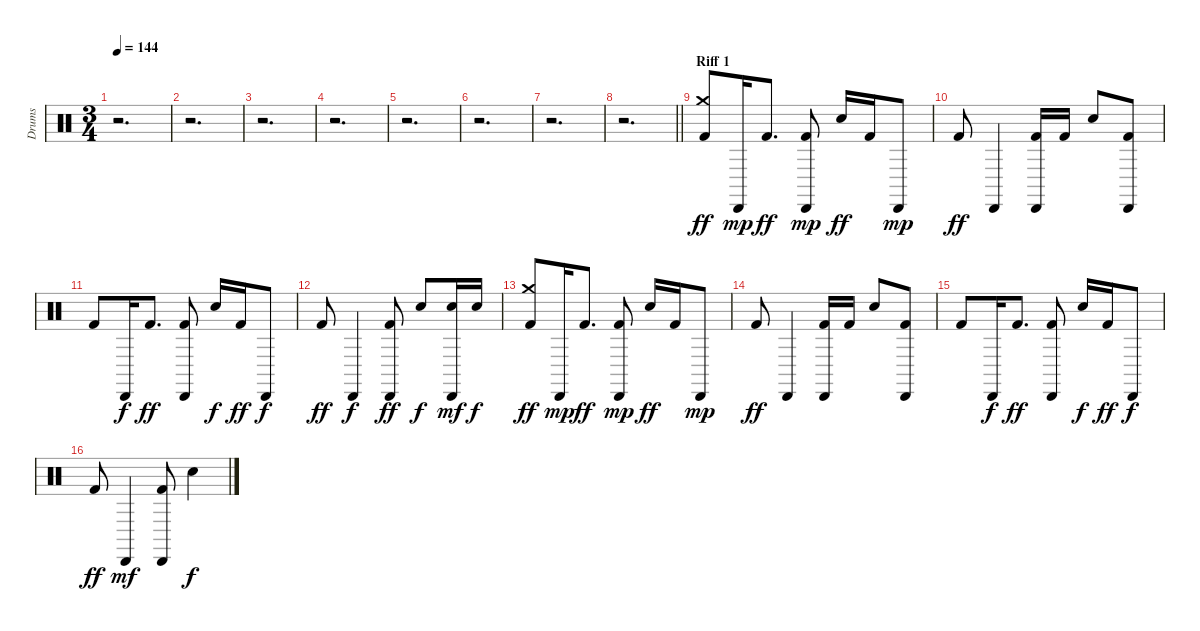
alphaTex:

\track ("Drums" "Drums") {instrument percussion}
\staff {score}
\articulation defaults
\ts (3 4)
\tempo 144
\clef neutral
\ks c
r.2{d dy ff} |
r.2{d} |
r.2{d} |
r.2{d} |
r.2{d} |
r.2{d} |
r.2{d} |
\barLineRight lightlight
r.2{d} |
\section ("" "Riff 1")
("Kick (hit) 2" "Crash medium (hit)").8 "Cabasa (hit)".16{dy mp} "Kick (hit) 2".8{d dy ff} ("Kick (hit) 2" "Cabasa (hit)").8{dy mp} "Snare (hit) 2".16{dy ff} "Kick (hit) 2".16 "Cabasa (hit)".8{dy mp} |
"Kick (hit) 2".8{dy ff} "Cabasa (hit)".4 ("Kick (hit) 2" "Cabasa (hit)").16 "Kick (hit) 2".16 "Snare (hit) 2".8 ("Kick (hit) 2" "Cabasa (hit)").8 |
"Kick (hit) 2".8 "Cabasa (hit)".16{dy f} "Kick (hit) 2".8{d dy ff} ("Kick (hit) 2" "Cabasa (hit)").8 "Snare (hit) 2".16{dy f} "Kick (hit) 2".16{dy ff} "Cabasa (hit)".8{dy f} |
"Kick (hit) 2".8{dy ff} "Cabasa (hit)".4{dy f} ("Kick (hit) 2" "Cabasa (hit)").8{dy ff} "Snare (hit) 2".8{dy f} ("Snare (hit) 2" "Cabasa (hit)").16{dy mf} "Snare (hit) 2".16{dy f} |
("Kick (hit) 2" "Crash medium (hit)").8{dy ff} "Cabasa (hit)".16{dy mp} "Kick (hit) 2".8{d dy ff} ("Kick (hit) 2" "Cabasa (hit)").8{dy mp} "Snare (hit) 2".16{dy ff} "Kick (hit) 2".16 "Cabasa (hit)".8{dy mp} |
"Kick (hit) 2".8{dy ff} "Cabasa (hit)".4 ("Kick (hit) 2" "Cabasa (hit)").16 "Kick (hit) 2".16 "Snare (hit) 2".8 ("Kick (hit) 2" "Cabasa (hit)").8 |
"Kick (hit) 2".8 "Cabasa (hit)".16{dy f} "Kick (hit) 2".8{d dy ff} ("Kick (hit) 2" "Cabasa (hit)").8 "Snare (hit) 2".16{dy f} "Kick (hit) 2".16{dy ff} "Cabasa (hit)".8{dy f} |
"Kick (hit) 2".8{dy ff} "Cabasa (hit)".4{dy mf} ("Kick (hit) 2" "Cabasa (hit)").8 "Snare (hit) 2".4{dy f}
